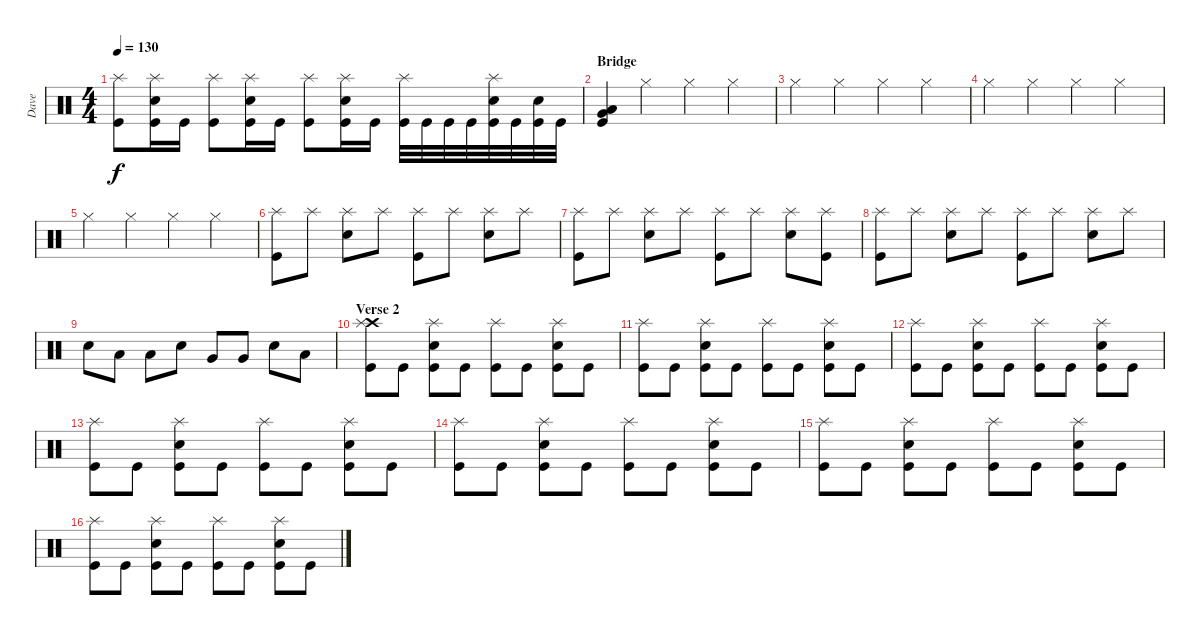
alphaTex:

\track ("Dave" "Dave") {instrument percussion}
\staff {score}
\articulation defaults
\ts (4 4)
\tempo 130
\clef neutral
\ks c
("Splash (hit)" "Kick (hit)").8{dy f} ("Splash (hit)" "Electric Snare (hit)" "Kick (hit)").16 "Kick (hit)".16 ("Splash (hit)" "Kick (hit)").8 ("Splash (hit)" "Electric Snare (hit)" "Kick (hit)").16 "Kick (hit)".16 ("Splash (hit)" "Kick (hit)").8 ("Splash (hit)" "Electric Snare (hit)" "Kick (hit)").16 "Kick (hit)".16 ("Splash (hit)" "Kick (hit)").32 "Kick (hit)".32 "Kick (hit)".32 "Kick (hit)".32 ("Splash (hit)" "Electric Snare (hit)" "Kick (hit)").32 "Kick (hit)".32 ("Electric Snare (hit)" "Kick (hit)").32 "Kick (hit)".32 |
\section ("" "Bridge")
("Very Low Tom (hit)" "Low Floor Tom (hit)" "Kick (hit)").4 "Hi-Hat (closed)".4 "Hi-Hat (closed)".4 "Hi-Hat (closed)".4 |
"Hi-Hat (closed)".4 "Hi-Hat (closed)".4 "Hi-Hat (closed)".4 "Hi-Hat (closed)".4 |
"Hi-Hat (closed)".4 "Hi-Hat (closed)".4 "Hi-Hat (closed)".4 "Hi-Hat (closed)".4 |
"Hi-Hat (closed)".4 "Hi-Hat (closed)".4 "Hi-Hat (closed)".4 "Hi-Hat (closed)".4 |
("Splash (hit)" "Kick (hit)").8 "Splash (hit)".8 ("Splash (hit)" "Electric Snare (hit)").8 "Splash (hit)".8 ("Splash (hit)" "Kick (hit)").8 "Splash (hit)".8 ("Splash (hit)" "Electric Snare (hit)").8 "Splash (hit)".8 |
("Splash (hit)" "Kick (hit)").8 "Splash (hit)".8 ("Splash (hit)" "Electric Snare (hit)").8 "Splash (hit)".8 ("Splash (hit)" "Kick (hit)").8 "Splash (hit)".8 ("Splash (hit)" "Electric Snare (hit)").8 ("Splash (hit)" "Kick (hit)").8 |
("Splash (hit)" "Kick (hit)").8 "Splash (hit)".8 ("Splash (hit)" "Electric Snare (hit)").8 "Splash (hit)".8 ("Splash (hit)" "Kick (hit)").8 "Splash (hit)".8 ("Splash (hit)" "Electric Snare (hit)").8 "Splash (hit)".8 |
"Electric Snare (hit)".8 "Low Tom (hit)".8 "Low Tom (hit)".8 "Electric Snare (hit)".8 "Very Low Tom (hit)".8 "Very Low Tom (hit)".8 "Electric Snare (hit)".8 "Low Floor Tom (hit)".8 |
\section ("" "Verse 2")
("Crash high (hit)" "Splash (hit)" "Kick (hit)").8 "Kick (hit)".8 ("Splash (hit)" "Electric Snare (hit)" "Kick (hit)").8 "Kick (hit)".8 ("Splash (hit)" "Kick (hit)").8 "Kick (hit)".8 ("Splash (hit)" "Electric Snare (hit)" "Kick (hit)").8 "Kick (hit)".8 |
("Splash (hit)" "Kick (hit)").8 "Kick (hit)".8 ("Splash (hit)" "Electric Snare (hit)" "Kick (hit)").8 "Kick (hit)".8 ("Splash (hit)" "Kick (hit)").8 "Kick (hit)".8 ("Splash (hit)" "Electric Snare (hit)" "Kick (hit)").8 "Kick (hit)".8 |
("Splash (hit)" "Kick (hit)").8 "Kick (hit)".8 ("Splash (hit)" "Electric Snare (hit)" "Kick (hit)").8 "Kick (hit)".8 ("Splash (hit)" "Kick (hit)").8 "Kick (hit)".8 ("Splash (hit)" "Electric Snare (hit)" "Kick (hit)").8 "Kick (hit)".8 |
("Splash (hit)" "Kick (hit)").8 "Kick (hit)".8 ("Splash (hit)" "Electric Snare (hit)" "Kick (hit)").8 "Kick (hit)".8 ("Splash (hit)" "Kick (hit)").8 "Kick (hit)".8 ("Splash (hit)" "Electric Snare (hit)" "Kick (hit)").8 "Kick (hit)".8 |
("Splash (hit)" "Kick (hit)").8 "Kick (hit)".8 ("Splash (hit)" "Electric Snare (hit)" "Kick (hit)").8 "Kick (hit)".8 ("Splash (hit)" "Kick (hit)").8 "Kick (hit)".8 ("Splash (hit)" "Electric Snare (hit)" "Kick (hit)").8 "Kick (hit)".8 |
("Splash (hit)" "Kick (hit)").8 "Kick (hit)".8 ("Splash (hit)" "Electric Snare (hit)" "Kick (hit)").8 "Kick (hit)".8 ("Splash (hit)" "Kick (hit)").8 "Kick (hit)".8 ("Splash (hit)" "Electric Snare (hit)" "Kick (hit)").8 "Kick (hit)".8 |
("Splash (hit)" "Kick (hit)").8 "Kick (hit)".8 ("Splash (hit)" "Electric Snare (hit)" "Kick (hit)").8 "Kick (hit)".8 ("Splash (hit)" "Kick (hit)").8 "Kick (hit)".8 ("Splash (hit)" "Electric Snare (hit)" "Kick (hit)").8 "Kick (hit)".8
